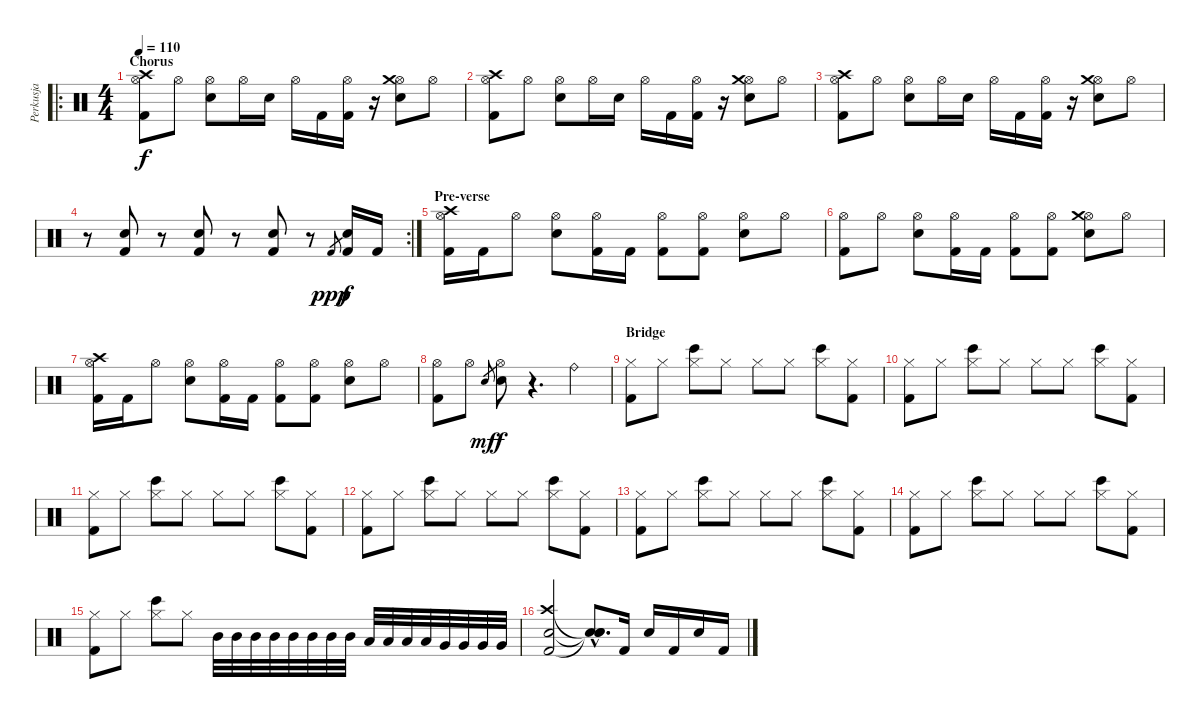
\track ("Perkusja" "Perkusja") {instrument percussion}
\staff {score}
\articulation defaults
\ro
\ts (4 4)
\section ("" "Chorus")
\tempo 110
\clef neutral
\ks c
("Hi-Hat (open)" "Kick (hit) 2" "Crash high (hit)").8{dy f} "Hi-Hat (open)".8 ("Hi-Hat (open)" "Snare (hit) 2").8 "Hi-Hat (open)".16 "Snare (hit) 2".16 "Hi-Hat (open)".16 "Kick (hit) 2".16 ("Hi-Hat (open)" "Kick (hit) 2").16 r.16 ("Hi-Hat (open)" "Snare (hit) 2" "Crash medium (hit)").8 "Hi-Hat (open)".8 |
("Hi-Hat (open)" "Kick (hit) 2" "Crash high (hit)").8 "Hi-Hat (open)".8 ("Hi-Hat (open)" "Snare (hit) 2").8 "Hi-Hat (open)".16 "Snare (hit) 2".16 "Hi-Hat (open)".16 "Kick (hit) 2".16 ("Hi-Hat (open)" "Kick (hit) 2").16 r.16 ("Hi-Hat (open)" "Snare (hit) 2" "Crash medium (hit)").8 "Hi-Hat (open)".8 |
("Hi-Hat (open)" "Kick (hit) 2" "Crash high (hit)").8 "Hi-Hat (open)".8 ("Hi-Hat (open)" "Snare (hit) 2").8 "Hi-Hat (open)".16 "Snare (hit) 2".16 "Hi-Hat (open)".16 "Kick (hit) 2".16 ("Hi-Hat (open)" "Kick (hit) 2").16 r.16 ("Hi-Hat (open)" "Snare (hit) 2" "Crash medium (hit)").8 "Hi-Hat (open)".8 |
\rc 2
r.8 ("Kick (hit) 2" "Snare (hit) 2").8 r.8 ("Kick (hit) 2" "Snare (hit) 2").8 r.8 ("Kick (hit) 2" "Snare (hit) 2").8 r.8 "Kick (hit) 2".8{gr dy ppp} ("Kick (hit) 2" "Snare (hit) 2").16{dy f} "Kick (hit) 2".16 |
\section ("" "Pre-verse")
("Hi-Hat (open)" "Kick (hit) 2" "Crash high (hit)").16 "Kick (hit) 2".16 "Hi-Hat (open)".8 ("Hi-Hat (open)" "Snare (hit) 2").8 ("Hi-Hat (open)" "Kick (hit) 2").16 "Kick (hit) 2".16 ("Hi-Hat (open)" "Kick (hit) 2").8 ("Hi-Hat (open)" "Kick (hit) 2").8 ("Hi-Hat (open)" "Snare (hit) 2").8 "Hi-Hat (open)".8 |
("Hi-Hat (open)" "Kick (hit) 2").8 "Hi-Hat (open)".8 ("Hi-Hat (open)" "Snare (hit) 2").8 ("Hi-Hat (open)" "Kick (hit) 2").16 "Kick (hit) 2".16 ("Hi-Hat (open)" "Kick (hit) 2").8 ("Hi-Hat (open)" "Kick (hit) 2").8 ("Hi-Hat (open)" "Snare (hit) 2" "Crash medium (hit)").8 "Hi-Hat (open)".8 |
("Hi-Hat (open)" "Kick (hit) 2" "Crash high (hit)").16 "Kick (hit) 2".16 "Hi-Hat (open)".8 ("Hi-Hat (open)" "Snare (hit) 2").8 ("Hi-Hat (open)" "Kick (hit) 2").16 "Kick (hit) 2".16 ("Hi-Hat (open)" "Kick (hit) 2").8 ("Hi-Hat (open)" "Kick (hit) 2").8 ("Hi-Hat (open)" "Snare (hit) 2").8 "Hi-Hat (open)".8 |
("Hi-Hat (open)" "Kick (hit) 2").8 "Hi-Hat (open)".8 "Snare (hit) 2"{h}.8{gr dy mf} ("Hi-Hat (open)" "Snare (hit) 2").8{dy f} r.4{d} "Ride (bell)".4 |
\section ("" "Bridge")
("Hi-Hat (closed)" "Kick (hit) 2").8 "Hi-Hat (closed)".8 ("Hi-Hat (closed)" "Bongo High (hit)").8 "Hi-Hat (closed)".8 "Hi-Hat (closed)".8 "Hi-Hat (closed)".8 ("Hi-Hat (closed)" "Bongo High (hit)").8 ("Hi-Hat (closed)" "Kick (hit) 2").8 |
("Hi-Hat (closed)" "Kick (hit) 2").8 "Hi-Hat (closed)".8 ("Hi-Hat (closed)" "Bongo High (hit)").8 "Hi-Hat (closed)".8 "Hi-Hat (closed)".8 "Hi-Hat (closed)".8 ("Hi-Hat (closed)" "Bongo High (hit)").8 ("Hi-Hat (closed)" "Kick (hit) 2").8 |
("Hi-Hat (closed)" "Kick (hit) 2").8 "Hi-Hat (closed)".8 ("Hi-Hat (closed)" "Bongo High (hit)").8 "Hi-Hat (closed)".8 "Hi-Hat (closed)".8 "Hi-Hat (closed)".8 ("Hi-Hat (closed)" "Bongo High (hit)").8 ("Hi-Hat (closed)" "Kick (hit) 2").8 |
("Hi-Hat (closed)" "Kick (hit) 2").8 "Hi-Hat (closed)".8 ("Hi-Hat (closed)" "Bongo High (hit)").8 "Hi-Hat (closed)".8 "Hi-Hat (closed)".8 "Hi-Hat (closed)".8 ("Hi-Hat (closed)" "Bongo High (hit)").8 ("Hi-Hat (closed)" "Kick (hit) 2").8 |
("Hi-Hat (closed)" "Kick (hit) 2").8 "Hi-Hat (closed)".8 ("Hi-Hat (closed)" "Bongo High (hit)").8 "Hi-Hat (closed)".8 "Hi-Hat (closed)".8 "Hi-Hat (closed)".8 ("Hi-Hat (closed)" "Bongo High (hit)").8 ("Hi-Hat (closed)" "Kick (hit) 2").8 |
("Hi-Hat (closed)" "Kick (hit) 2").8 "Hi-Hat (closed)".8 ("Hi-Hat (closed)" "Bongo High (hit)").8 "Hi-Hat (closed)".8 "Hi-Hat (closed)".8 "Hi-Hat (closed)".8 ("Hi-Hat (closed)" "Bongo High (hit)").8 ("Hi-Hat (closed)" "Kick (hit) 2").8 |
("Hi-Hat (closed)" "Kick (hit) 2").8 "Hi-Hat (closed)".8 ("Hi-Hat (closed)" "Bongo High (hit)").8 "Hi-Hat (closed)".8 "Mid Tom (hit)".32 "Mid Tom (hit)".32 "Mid Tom (hit)".32 "Mid Tom (hit)".32 "Mid Tom (hit)".32 "Mid Tom (hit)".32 "Mid Tom (hit)".32 "Mid Tom (hit)".32 "Low Tom (hit)".32 "Low Tom (hit)".32 "Low Tom (hit)".32 "Low Tom (hit)".32 "Very Low Tom (hit)".32 "Very Low Tom (hit)".32 "Very Low Tom (hit)".32 "Very Low Tom (hit)".32 |
("Crash high (hit)" "Snare (hit) 2" "Kick (hit) 2").2 ("Snare (hit)"{hac t} "Snare (hit)"{hac t} "Snare (hit)"{hac t}).8{d} "Kick (hit) 2".16 "Snare (hit) 2".16 "Kick (hit) 2".16 "Snare (hit) 2".16 "Kick (hit) 2".16
